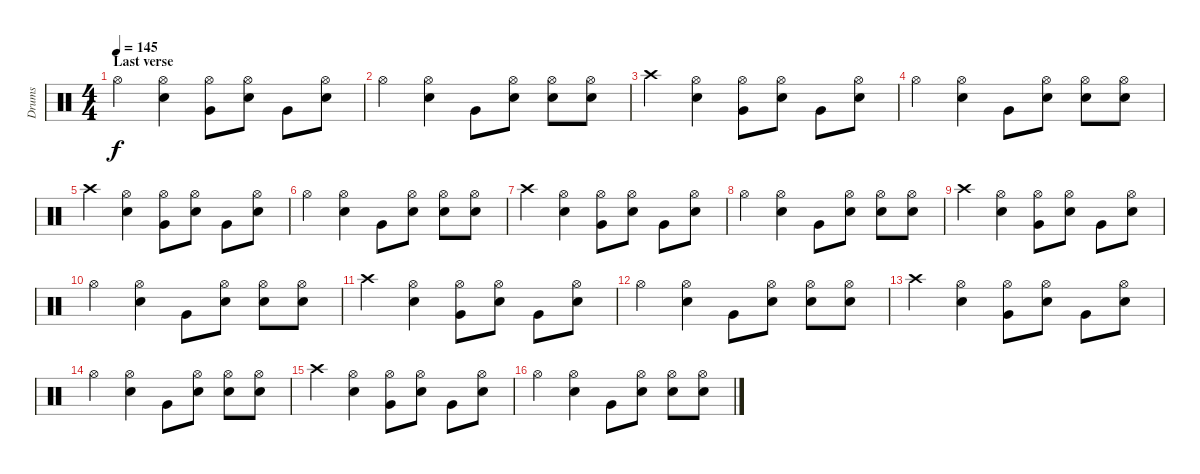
\track ("Drums" "Drums") {instrument percussion}
\staff {score}
\articulation defaults
\ts (4 4)
\section ("" "Last verse")
\tempo 145
\clef neutral
\ks c "Hi-Hat (open)".4{dy f}
("Hi-Hat (open)" "Electric Snare (hit)").4 ("Hi-Hat (open)" "Very Low Tom (hit)").8 ("Hi-Hat (open)" "Electric Snare (hit)").8 "Very Low Tom (hit)".8 ("Hi-Hat (open)" "Electric Snare (hit)").8 |
"Hi-Hat (open)".4 ("Hi-Hat (open)" "Electric Snare (hit)").4 "Very Low Tom (hit)".8 ("Hi-Hat (open)" "Electric Snare (hit)").8 ("Hi-Hat (open)" "Electric Snare (hit)").8 ("Hi-Hat (open)" "Electric Snare (hit)").8 |
"Crash high (hit)".4 ("Hi-Hat (open)" "Electric Snare (hit)").4 ("Hi-Hat (open)" "Very Low Tom (hit)").8 ("Hi-Hat (open)" "Electric Snare (hit)").8 "Very Low Tom (hit)".8 ("Hi-Hat (open)" "Electric Snare (hit)").8 |
"Hi-Hat (open)".4 ("Hi-Hat (open)" "Electric Snare (hit)").4 "Very Low Tom (hit)".8 ("Hi-Hat (open)" "Electric Snare (hit)").8 ("Hi-Hat (open)" "Electric Snare (hit)").8 ("Hi-Hat (open)" "Electric Snare (hit)").8 |
"Crash high (hit)".4 ("Hi-Hat (open)" "Electric Snare (hit)").4 ("Hi-Hat (open)" "Very Low Tom (hit)").8 ("Hi-Hat (open)" "Electric Snare (hit)").8 "Very Low Tom (hit)".8 ("Hi-Hat (open)" "Electric Snare (hit)").8 |
"Hi-Hat (open)".4 ("Hi-Hat (open)" "Electric Snare (hit)").4 "Very Low Tom (hit)".8 ("Hi-Hat (open)" "Electric Snare (hit)").8 ("Hi-Hat (open)" "Electric Snare (hit)").8 ("Hi-Hat (open)" "Electric Snare (hit)").8 |
"Crash high (hit)".4 ("Hi-Hat (open)" "Electric Snare (hit)").4 ("Hi-Hat (open)" "Very Low Tom (hit)").8 ("Hi-Hat (open)" "Electric Snare (hit)").8 "Very Low Tom (hit)".8 ("Hi-Hat (open)" "Electric Snare (hit)").8 |
"Hi-Hat (open)".4 ("Hi-Hat (open)" "Electric Snare (hit)").4 "Very Low Tom (hit)".8 ("Hi-Hat (open)" "Electric Snare (hit)").8 ("Hi-Hat (open)" "Electric Snare (hit)").8 ("Hi-Hat (open)" "Electric Snare (hit)").8 |
"Crash high (hit)".4 ("Hi-Hat (open)" "Electric Snare (hit)").4 ("Hi-Hat (open)" "Very Low Tom (hit)").8 ("Hi-Hat (open)" "Electric Snare (hit)").8 "Very Low Tom (hit)".8 ("Hi-Hat (open)" "Electric Snare (hit)").8 |
"Hi-Hat (open)".4 ("Hi-Hat (open)" "Electric Snare (hit)").4 "Very Low Tom (hit)".8 ("Hi-Hat (open)" "Electric Snare (hit)").8 ("Hi-Hat (open)" "Electric Snare (hit)").8 ("Hi-Hat (open)" "Electric Snare (hit)").8 |
"Crash high (hit)".4 ("Hi-Hat (open)" "Electric Snare (hit)").4 ("Hi-Hat (open)" "Very Low Tom (hit)").8 ("Hi-Hat (open)" "Electric Snare (hit)").8 "Very Low Tom (hit)".8 ("Hi-Hat (open)" "Electric Snare (hit)").8 |
"Hi-Hat (open)".4 ("Hi-Hat (open)" "Electric Snare (hit)").4 "Very Low Tom (hit)".8 ("Hi-Hat (open)" "Electric Snare (hit)").8 ("Hi-Hat (open)" "Electric Snare (hit)").8 ("Hi-Hat (open)" "Electric Snare (hit)").8 |
"Crash high (hit)".4 ("Hi-Hat (open)" "Electric Snare (hit)").4 ("Hi-Hat (open)" "Very Low Tom (hit)").8 ("Hi-Hat (open)" "Electric Snare (hit)").8 "Very Low Tom (hit)".8 ("Hi-Hat (open)" "Electric Snare (hit)").8 |
"Hi-Hat (open)".4 ("Hi-Hat (open)" "Electric Snare (hit)").4 "Very Low Tom (hit)".8 ("Hi-Hat (open)" "Electric Snare (hit)").8 ("Hi-Hat (open)" "Electric Snare (hit)").8 ("Hi-Hat (open)" "Electric Snare (hit)").8 |
"Crash high (hit)".4 ("Hi-Hat (open)" "Electric Snare (hit)").4 ("Hi-Hat (open)" "Very Low Tom (hit)").8 ("Hi-Hat (open)" "Electric Snare (hit)").8 "Very Low Tom (hit)".8 ("Hi-Hat (open)" "Electric Snare (hit)").8 |
"Hi-Hat (open)".4 ("Hi-Hat (open)" "Electric Snare (hit)").4 "Very Low Tom (hit)".8 ("Hi-Hat (open)" "Electric Snare (hit)").8 ("Hi-Hat (open)" "Electric Snare (hit)").8 ("Hi-Hat (open)" "Electric Snare (hit)").8
